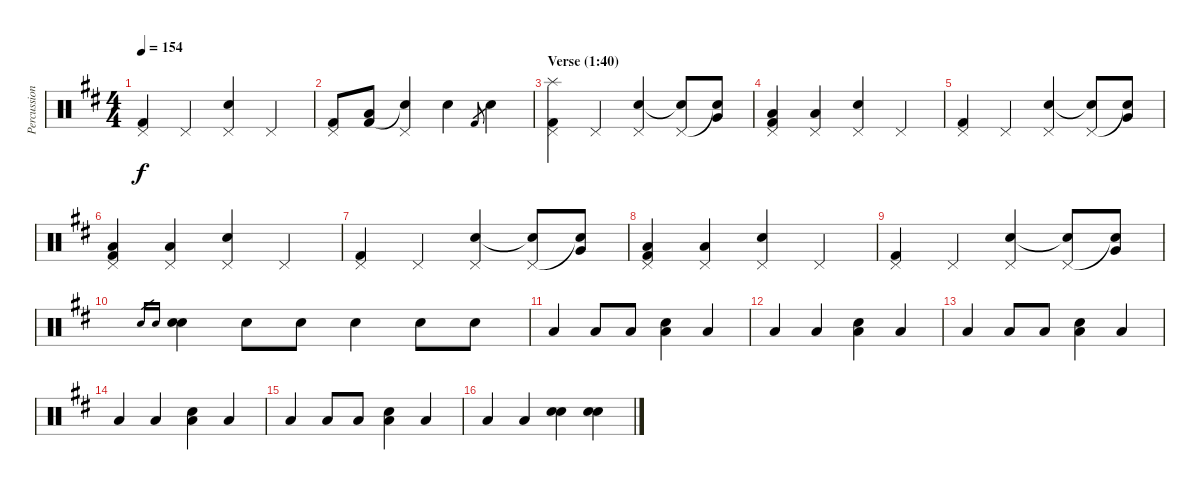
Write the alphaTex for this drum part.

\track ("Percussion" "Percussion") {instrument percussion}
\staff {score}
\articulation defaults
\ts (4 4)
\tempo 154
\clef neutral
\ks d
("Kick (hit) 2" "Pedal Hi-Hat (hit)").4{dy f} "Pedal Hi-Hat (hit)".4 ("Electric Snare (hit)" "Pedal Hi-Hat (hit)").4 "Pedal Hi-Hat (hit)".4 |
("Kick (hit) 2" "Pedal Hi-Hat (hit)").8 ("Kick (hit) 2" "Low Floor Tom (hit)").8 ("Snare (hit)"{t} "Pedal Hi-Hat (hit)").4 "Electric Snare (hit)".4 "Kick (hit) 2".8{gr} "Electric Snare (hit)".4 |
\section ("" "Verse (1:40)")
("Kick (hit) 2" "Pedal Hi-Hat (hit)" "Splash (hit)").4 "Pedal Hi-Hat (hit)".4 ("Electric Snare (hit)" "Pedal Hi-Hat (hit)").4 ("Snare (hit)"{t} "Pedal Hi-Hat (hit)").8 ("Very Low Tom (hit)" "Snare (hit)"{t}).8 |
("Kick (hit) 2" "Pedal Hi-Hat (hit)" "Low Floor Tom (hit)").4 ("Low Floor Tom (hit)" "Pedal Hi-Hat (hit)").4 ("Electric Snare (hit)" "Pedal Hi-Hat (hit)").4 "Pedal Hi-Hat (hit)".4 |
("Kick (hit) 2" "Pedal Hi-Hat (hit)").4 "Pedal Hi-Hat (hit)".4 ("Electric Snare (hit)" "Pedal Hi-Hat (hit)").4 ("Snare (hit)"{t} "Pedal Hi-Hat (hit)").8 ("Very Low Tom (hit)" "Snare (hit)"{t}).8 |
("Kick (hit) 2" "Pedal Hi-Hat (hit)" "Low Floor Tom (hit)").4 ("Low Floor Tom (hit)" "Pedal Hi-Hat (hit)").4 ("Electric Snare (hit)" "Pedal Hi-Hat (hit)").4 "Pedal Hi-Hat (hit)".4 |
("Kick (hit) 2" "Pedal Hi-Hat (hit)").4 "Pedal Hi-Hat (hit)".4 ("Electric Snare (hit)" "Pedal Hi-Hat (hit)").4 ("Snare (hit)"{t} "Pedal Hi-Hat (hit)").8 ("Very Low Tom (hit)" "Snare (hit)"{t}).8 |
("Kick (hit) 2" "Pedal Hi-Hat (hit)" "Low Floor Tom (hit)").4 ("Low Floor Tom (hit)" "Pedal Hi-Hat (hit)").4 ("Electric Snare (hit)" "Pedal Hi-Hat (hit)").4 "Pedal Hi-Hat (hit)".4 |
("Kick (hit) 2" "Pedal Hi-Hat (hit)").4 "Pedal Hi-Hat (hit)".4 ("Electric Snare (hit)" "Pedal Hi-Hat (hit)").4 ("Snare (hit)"{t} "Pedal Hi-Hat (hit)").8 ("Very Low Tom (hit)" "Snare (hit)"{t}).8 |
"Electric Snare (hit)".16{gr} "Electric Snare (hit)".16{gr} ("Electric Snare (hit)" "Electric Snare (hit)").4 "Electric Snare (hit)".8 "Electric Snare (hit)".8 "Electric Snare (hit)".4 "Electric Snare (hit)".8 "Electric Snare (hit)".8 |
"Low Floor Tom (hit)".4 "Low Floor Tom (hit)".8 "Low Floor Tom (hit)".8 ("Low Floor Tom (hit)" "Electric Snare (hit)").4 "Low Tom (hit)".4 |
"Low Floor Tom (hit)".4 "Low Floor Tom (hit)".4 ("Low Floor Tom (hit)" "Electric Snare (hit)").4 "Low Tom (hit)".4 |
"Low Floor Tom (hit)".4 "Low Floor Tom (hit)".8 "Low Floor Tom (hit)".8 ("Low Floor Tom (hit)" "Electric Snare (hit)").4 "Low Tom (hit)".4 |
"Low Floor Tom (hit)".4 "Low Floor Tom (hit)".4 ("Low Floor Tom (hit)" "Electric Snare (hit)").4 "Low Tom (hit)".4 |
"Low Floor Tom (hit)".4 "Low Floor Tom (hit)".8 "Low Floor Tom (hit)".8 ("Low Floor Tom (hit)" "Electric Snare (hit)").4 "Low Tom (hit)".4 |
"Low Floor Tom (hit)".4 "Low Floor Tom (hit)".4 ("Electric Snare (hit)" "Electric Snare (hit)").4 ("Electric Snare (hit)" "Electric Snare (hit)").4
